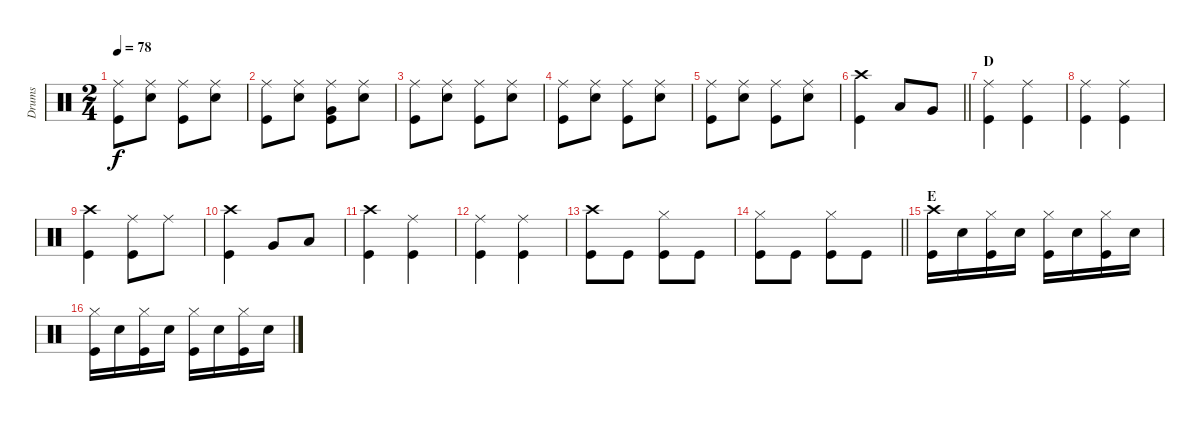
\track ("Drums" "Drums") {instrument percussion}
\staff {score}
\articulation defaults
\ts (2 4)
\tempo 78
\clef neutral
\ks c
("Ride (middle)" "Kick (hit)").8{dy f} ("Ride (middle)" "Electric Snare (hit)").8 ("Ride (middle)" "Kick (hit)").8 ("Ride (middle)" "Electric Snare (hit)").8 |
("Ride (middle)" "Kick (hit)").8 ("Ride (middle)" "Electric Snare (hit)").8 ("Ride (middle)" "Very Low Tom (hit)" "Kick (hit)").8 ("Ride (middle)" "Electric Snare (hit)").8 |
("Ride (middle)" "Kick (hit)").8 ("Ride (middle)" "Electric Snare (hit)").8 ("Ride (middle)" "Kick (hit)").8 ("Ride (middle)" "Electric Snare (hit)").8 |
("Ride (middle)" "Kick (hit)").8 ("Ride (middle)" "Electric Snare (hit)").8 ("Ride (middle)" "Kick (hit)").8 ("Ride (middle)" "Electric Snare (hit)").8 |
("Ride (middle)" "Kick (hit)").8 ("Ride (middle)" "Electric Snare (hit)").8 ("Ride (middle)" "Kick (hit)").8 ("Ride (middle)" "Electric Snare (hit)").8 |
\barLineRight lightlight
("Crash high (hit)" "Kick (hit)").4 "Low Tom (hit)".8 "Very Low Tom (hit)".8 |
\section ("" "D")
("Ride (middle)" "Kick (hit)").4 ("Ride (middle)" "Kick (hit)").4 |
("Ride (middle)" "Kick (hit)").4 ("Ride (middle)" "Kick (hit)").4 |
("Crash high (hit)" "Kick (hit)").4 ("Ride (middle)" "Kick (hit)").8 "Ride (middle)".8 |
("Crash high (hit)" "Kick (hit)").4 "Very Low Tom (hit)".8 "Low Tom (hit)".8 |
("Crash high (hit)" "Kick (hit)").4 ("Ride (middle)" "Kick (hit)").4 |
("Ride (middle)" "Kick (hit)").4 ("Ride (middle)" "Kick (hit)").4 |
("Crash high (hit)" "Kick (hit)").8 "Kick (hit)".8 ("Hi-Hat (closed)" "Kick (hit)").8 "Kick (hit)".8 |
\barLineRight lightlight
("Hi-Hat (closed)" "Kick (hit)").8 "Kick (hit)".8 ("Hi-Hat (closed)" "Kick (hit)").8 "Kick (hit)".8 |
\section ("" "E")
("Crash high (hit)" "Kick (hit)").16 "Electric Snare (hit)".16 ("Hi-Hat (closed)" "Kick (hit)").16 "Electric Snare (hit)".16 ("Hi-Hat (closed)" "Kick (hit)").16 "Electric Snare (hit)".16 ("Hi-Hat (closed)" "Kick (hit)").16 "Electric Snare (hit)".16 |
("Hi-Hat (closed)" "Kick (hit)").16 "Electric Snare (hit)".16 ("Hi-Hat (closed)" "Kick (hit)").16 "Electric Snare (hit)".16 ("Hi-Hat (closed)" "Kick (hit)").16 "Electric Snare (hit)".16 ("Hi-Hat (closed)" "Kick (hit)").16 "Electric Snare (hit)".16
